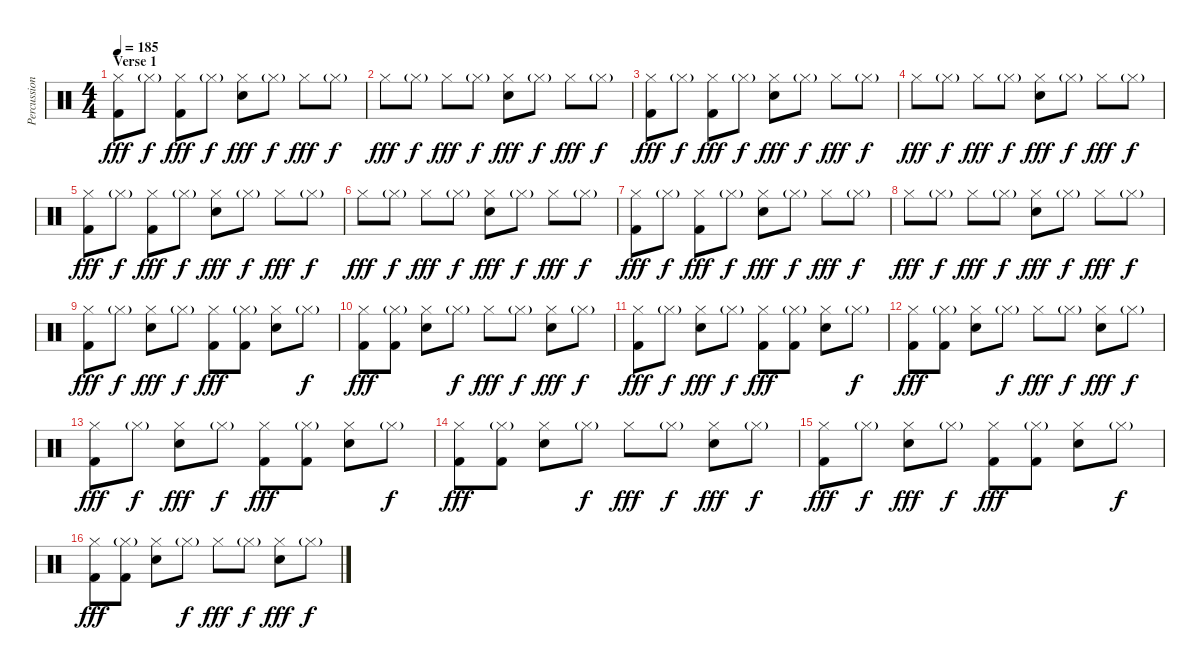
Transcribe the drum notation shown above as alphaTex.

\track ("Percussion" "Percussion") {instrument percussion}
\staff {score}
\articulation defaults
\ts (4 4)
\section ("" "Verse 1")
\tempo 185
\clef neutral
\ks c
("Hi-Hat (closed)" "Kick (hit) 2").8{dy fff} "Hi-Hat (closed)"{g}.8{dy f} ("Hi-Hat (closed)" "Kick (hit) 2").8{dy fff} "Hi-Hat (closed)"{g}.8{dy f} ("Hi-Hat (closed)" "Snare (hit) 2").8{dy fff} "Hi-Hat (closed)"{g}.8{dy f} "Hi-Hat (closed)".8{dy fff} "Hi-Hat (closed)"{g}.8{dy f} |
"Hi-Hat (closed)".8{dy fff} "Hi-Hat (closed)"{g}.8{dy f} "Hi-Hat (closed)".8{dy fff} "Hi-Hat (closed)"{g}.8{dy f} ("Hi-Hat (closed)" "Snare (hit) 2").8{dy fff} "Hi-Hat (closed)"{g}.8{dy f} "Hi-Hat (closed)".8{dy fff} "Hi-Hat (closed)"{g}.8{dy f} |
("Hi-Hat (closed)" "Kick (hit) 2").8{dy fff} "Hi-Hat (closed)"{g}.8{dy f} ("Hi-Hat (closed)" "Kick (hit) 2").8{dy fff} "Hi-Hat (closed)"{g}.8{dy f} ("Hi-Hat (closed)" "Snare (hit) 2").8{dy fff} "Hi-Hat (closed)"{g}.8{dy f} "Hi-Hat (closed)".8{dy fff} "Hi-Hat (closed)"{g}.8{dy f} |
"Hi-Hat (closed)".8{dy fff} "Hi-Hat (closed)"{g}.8{dy f} "Hi-Hat (closed)".8{dy fff} "Hi-Hat (closed)"{g}.8{dy f} ("Hi-Hat (closed)" "Snare (hit) 2").8{dy fff} "Hi-Hat (closed)"{g}.8{dy f} "Hi-Hat (closed)".8{dy fff} "Hi-Hat (closed)"{g}.8{dy f} |
("Hi-Hat (closed)" "Kick (hit) 2").8{dy fff} "Hi-Hat (closed)"{g}.8{dy f} ("Hi-Hat (closed)" "Kick (hit) 2").8{dy fff} "Hi-Hat (closed)"{g}.8{dy f} ("Hi-Hat (closed)" "Snare (hit) 2").8{dy fff} "Hi-Hat (closed)"{g}.8{dy f} "Hi-Hat (closed)".8{dy fff} "Hi-Hat (closed)"{g}.8{dy f} |
"Hi-Hat (closed)".8{dy fff} "Hi-Hat (closed)"{g}.8{dy f} "Hi-Hat (closed)".8{dy fff} "Hi-Hat (closed)"{g}.8{dy f} ("Hi-Hat (closed)" "Snare (hit) 2").8{dy fff} "Hi-Hat (closed)"{g}.8{dy f} "Hi-Hat (closed)".8{dy fff} "Hi-Hat (closed)"{g}.8{dy f} |
("Hi-Hat (closed)" "Kick (hit) 2").8{dy fff} "Hi-Hat (closed)"{g}.8{dy f} ("Hi-Hat (closed)" "Kick (hit) 2").8{dy fff} "Hi-Hat (closed)"{g}.8{dy f} ("Hi-Hat (closed)" "Snare (hit) 2").8{dy fff} "Hi-Hat (closed)"{g}.8{dy f} "Hi-Hat (closed)".8{dy fff} "Hi-Hat (closed)"{g}.8{dy f} |
"Hi-Hat (closed)".8{dy fff} "Hi-Hat (closed)"{g}.8{dy f} "Hi-Hat (closed)".8{dy fff} "Hi-Hat (closed)"{g}.8{dy f} ("Hi-Hat (closed)" "Snare (hit) 2").8{dy fff} "Hi-Hat (closed)"{g}.8{dy f} "Hi-Hat (closed)".8{dy fff} "Hi-Hat (closed)"{g}.8{dy f} |
("Hi-Hat (closed)" "Kick (hit) 2").8{dy fff} "Hi-Hat (closed)"{g}.8{dy f} ("Hi-Hat (closed)" "Snare (hit) 2").8{dy fff} "Hi-Hat (closed)"{g}.8{dy f} ("Hi-Hat (closed)" "Kick (hit) 2").8{dy fff} ("Hi-Hat (closed)"{g} "Kick (hit) 2").8 ("Hi-Hat (closed)" "Snare (hit) 2").8 "Hi-Hat (closed)"{g}.8{dy f} |
("Hi-Hat (closed)" "Kick (hit) 2").8{dy fff} ("Hi-Hat (closed)"{g} "Kick (hit) 2").8 ("Hi-Hat (closed)" "Snare (hit) 2").8 "Hi-Hat (closed)"{g}.8{dy f} "Hi-Hat (closed)".8{dy fff} "Hi-Hat (closed)"{g}.8{dy f} ("Hi-Hat (closed)" "Snare (hit) 2").8{dy fff} "Hi-Hat (closed)"{g}.8{dy f} |
("Hi-Hat (closed)" "Kick (hit) 2").8{dy fff} "Hi-Hat (closed)"{g}.8{dy f} ("Hi-Hat (closed)" "Snare (hit) 2").8{dy fff} "Hi-Hat (closed)"{g}.8{dy f} ("Hi-Hat (closed)" "Kick (hit) 2").8{dy fff} ("Hi-Hat (closed)"{g} "Kick (hit) 2").8 ("Hi-Hat (closed)" "Snare (hit) 2").8 "Hi-Hat (closed)"{g}.8{dy f} |
("Hi-Hat (closed)" "Kick (hit) 2").8{dy fff} ("Hi-Hat (closed)"{g} "Kick (hit) 2").8 ("Hi-Hat (closed)" "Snare (hit) 2").8 "Hi-Hat (closed)"{g}.8{dy f} "Hi-Hat (closed)".8{dy fff} "Hi-Hat (closed)"{g}.8{dy f} ("Hi-Hat (closed)" "Snare (hit) 2").8{dy fff} "Hi-Hat (closed)"{g}.8{dy f} |
("Hi-Hat (closed)" "Kick (hit) 2").8{dy fff} "Hi-Hat (closed)"{g}.8{dy f} ("Hi-Hat (closed)" "Snare (hit) 2").8{dy fff} "Hi-Hat (closed)"{g}.8{dy f} ("Hi-Hat (closed)" "Kick (hit) 2").8{dy fff} ("Hi-Hat (closed)"{g} "Kick (hit) 2").8 ("Hi-Hat (closed)" "Snare (hit) 2").8 "Hi-Hat (closed)"{g}.8{dy f} |
("Hi-Hat (closed)" "Kick (hit) 2").8{dy fff} ("Hi-Hat (closed)"{g} "Kick (hit) 2").8 ("Hi-Hat (closed)" "Snare (hit) 2").8 "Hi-Hat (closed)"{g}.8{dy f} "Hi-Hat (closed)".8{dy fff} "Hi-Hat (closed)"{g}.8{dy f} ("Hi-Hat (closed)" "Snare (hit) 2").8{dy fff} "Hi-Hat (closed)"{g}.8{dy f} |
("Hi-Hat (closed)" "Kick (hit) 2").8{dy fff} "Hi-Hat (closed)"{g}.8{dy f} ("Hi-Hat (closed)" "Snare (hit) 2").8{dy fff} "Hi-Hat (closed)"{g}.8{dy f} ("Hi-Hat (closed)" "Kick (hit) 2").8{dy fff} ("Hi-Hat (closed)"{g} "Kick (hit) 2").8 ("Hi-Hat (closed)" "Snare (hit) 2").8 "Hi-Hat (closed)"{g}.8{dy f} |
("Hi-Hat (closed)" "Kick (hit) 2").8{dy fff} ("Hi-Hat (closed)"{g} "Kick (hit) 2").8 ("Hi-Hat (closed)" "Snare (hit) 2").8 "Hi-Hat (closed)"{g}.8{dy f} "Hi-Hat (closed)".8{dy fff} "Hi-Hat (closed)"{g}.8{dy f} ("Hi-Hat (closed)" "Snare (hit) 2").8{dy fff} "Hi-Hat (closed)"{g}.8{dy f}
